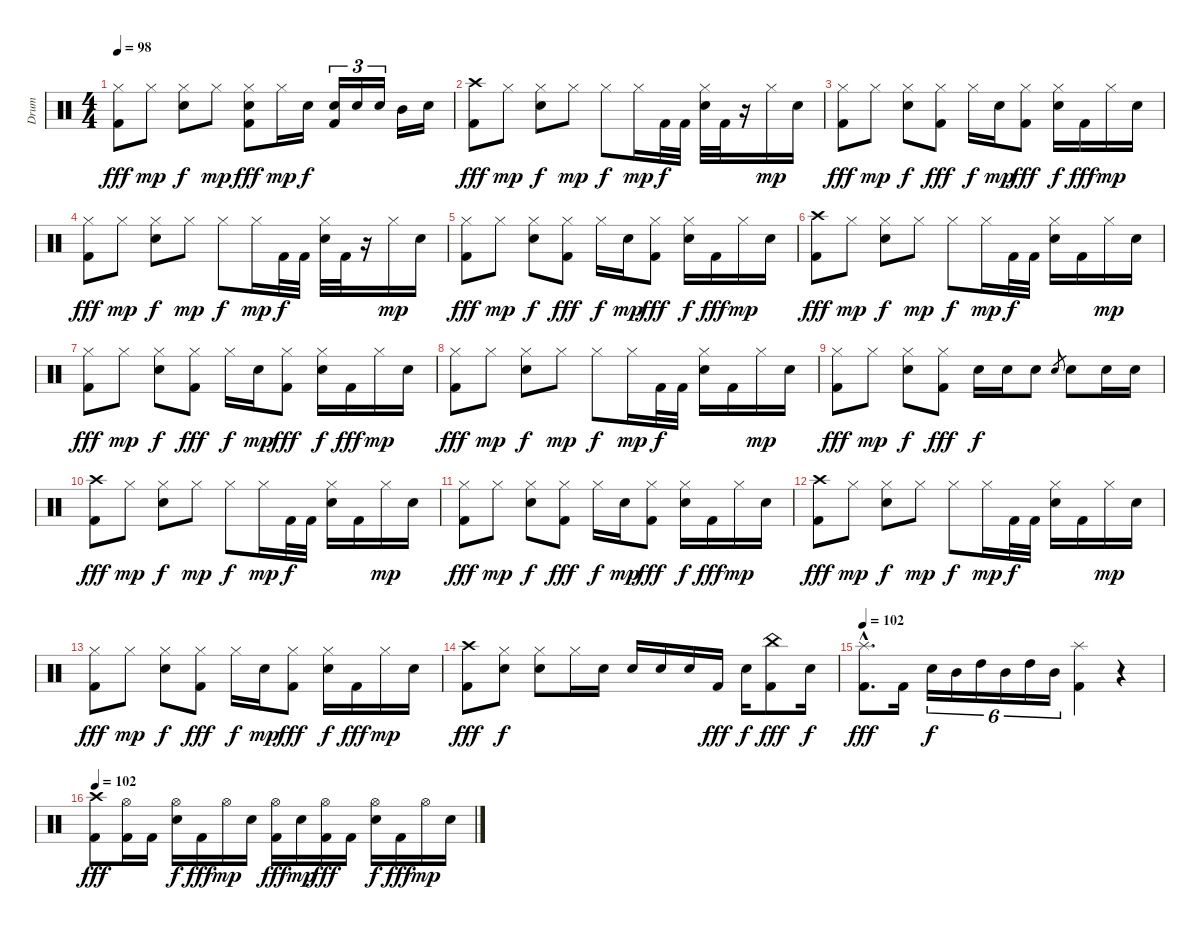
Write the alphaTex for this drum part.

\track ("Drum" "Drum") {instrument percussion}
\staff {score}
\articulation defaults
\ts (4 4)
\tempo 98
\clef neutral
\ks c
("Hi-Hat (closed)" "Kick (hit) 2").8{dy fff} "Hi-Hat (closed)".8{dy mp} ("Hi-Hat (closed)" "Electric Snare (hit)").8{dy f} "Hi-Hat (closed)".8{dy mp} ("Hi-Hat (closed)" "Electric Snare (hit)" "Kick (hit) 2").8{dy fff} "Hi-Hat (closed)".16{dy mp} "Electric Snare (hit)".16{dy f} ("Electric Snare (hit)" "Kick (hit) 2").16{tu (3 2)} "Electric Snare (hit)".16{tu (3 2)} "Electric Snare (hit)".16{tu (3 2)} "Mid Tom (hit)".16 "Electric Snare (hit)".16 |
("Crash high (hit)" "Kick (hit) 2").8{dy fff} "Hi-Hat (closed)".8{dy mp} ("Hi-Hat (closed)" "Electric Snare (hit)").8{dy f} "Hi-Hat (closed)".8{dy mp} "Hi-Hat (closed)".8{dy f} "Hi-Hat (closed)".16{dy mp} "Kick (hit) 2".32{dy f} "Kick (hit) 2".32 ("Hi-Hat (closed)" "Electric Snare (hit)").32 "Kick (hit) 2".32 r.16 "Hi-Hat (closed)".16{dy mp} "Electric Snare (hit)".16 |
("Hi-Hat (closed)" "Kick (hit) 2").8{dy fff} "Hi-Hat (closed)".8{dy mp} ("Hi-Hat (closed)" "Electric Snare (hit)").8{dy f} ("Hi-Hat (closed)" "Kick (hit) 2").8{dy fff} "Hi-Hat (closed)".16{dy f} "Electric Snare (hit)".16{dy mp} ("Hi-Hat (closed)" "Kick (hit) 2").8{dy fff} ("Hi-Hat (closed)" "Electric Snare (hit)").16{dy f} "Kick (hit) 2".16{dy fff} "Hi-Hat (closed)".16{dy mp} "Electric Snare (hit)".16 |
("Hi-Hat (closed)" "Kick (hit) 2").8{dy fff} "Hi-Hat (closed)".8{dy mp} ("Hi-Hat (closed)" "Electric Snare (hit)").8{dy f} "Hi-Hat (closed)".8{dy mp} "Hi-Hat (closed)".8{dy f} "Hi-Hat (closed)".16{dy mp} "Kick (hit) 2".32{dy f} "Kick (hit) 2".32 ("Hi-Hat (closed)" "Electric Snare (hit)").32 "Kick (hit) 2".32 r.16 "Hi-Hat (closed)".16{dy mp} "Electric Snare (hit)".16 |
("Hi-Hat (closed)" "Kick (hit) 2").8{dy fff} "Hi-Hat (closed)".8{dy mp} ("Hi-Hat (closed)" "Electric Snare (hit)").8{dy f} ("Hi-Hat (closed)" "Kick (hit) 2").8{dy fff} "Hi-Hat (closed)".16{dy f} "Electric Snare (hit)".16{dy mp} ("Hi-Hat (closed)" "Kick (hit) 2").8{dy fff} ("Hi-Hat (closed)" "Electric Snare (hit)").16{dy f} "Kick (hit) 2".16{dy fff} "Hi-Hat (closed)".16{dy mp} "Electric Snare (hit)".16 |
("Crash high (hit)" "Kick (hit) 2").8{dy fff} "Hi-Hat (closed)".8{dy mp} ("Hi-Hat (closed)" "Electric Snare (hit)").8{dy f} "Hi-Hat (closed)".8{dy mp} "Hi-Hat (closed)".8{dy f} "Hi-Hat (closed)".16{dy mp} "Kick (hit) 2".32{dy f} "Kick (hit) 2".32 ("Hi-Hat (closed)" "Electric Snare (hit)").16 "Kick (hit) 2".16 "Hi-Hat (closed)".16{dy mp} "Electric Snare (hit)".16 |
("Hi-Hat (closed)" "Kick (hit) 2").8{dy fff} "Hi-Hat (closed)".8{dy mp} ("Hi-Hat (closed)" "Electric Snare (hit)").8{dy f} ("Hi-Hat (closed)" "Kick (hit) 2").8{dy fff} "Hi-Hat (closed)".16{dy f} "Electric Snare (hit)".16{dy mp} ("Hi-Hat (closed)" "Kick (hit) 2").8{dy fff} ("Hi-Hat (closed)" "Electric Snare (hit)").16{dy f} "Kick (hit) 2".16{dy fff} "Hi-Hat (closed)".16{dy mp} "Electric Snare (hit)".16 |
("Hi-Hat (closed)" "Kick (hit) 2").8{dy fff} "Hi-Hat (closed)".8{dy mp} ("Hi-Hat (closed)" "Electric Snare (hit)").8{dy f} "Hi-Hat (closed)".8{dy mp} "Hi-Hat (closed)".8{dy f} "Hi-Hat (closed)".16{dy mp} "Kick (hit) 2".32{dy f} "Kick (hit) 2".32 ("Hi-Hat (closed)" "Electric Snare (hit)").16 "Kick (hit) 2".16 "Hi-Hat (closed)".16{dy mp} "Electric Snare (hit)".16 |
("Hi-Hat (closed)" "Kick (hit) 2").8{dy fff} "Hi-Hat (closed)".8{dy mp} ("Hi-Hat (closed)" "Electric Snare (hit)").8{dy f} ("Hi-Hat (closed)" "Kick (hit) 2").8{dy fff} "Electric Snare (hit)".16{dy f} "Electric Snare (hit)".16 "Electric Snare (hit)".8 "Electric Snare (hit)".8{gr} "Electric Snare (hit)".8 "Electric Snare (hit)".16 "Electric Snare (hit)".16 |
("Crash high (hit)" "Kick (hit) 2").8{dy fff} "Hi-Hat (closed)".8{dy mp} ("Hi-Hat (closed)" "Electric Snare (hit)").8{dy f} "Hi-Hat (closed)".8{dy mp} "Hi-Hat (closed)".8{dy f} "Hi-Hat (closed)".16{dy mp} "Kick (hit) 2".32{dy f} "Kick (hit) 2".32 ("Hi-Hat (closed)" "Electric Snare (hit)").16 "Kick (hit) 2".16 "Hi-Hat (closed)".16{dy mp} "Electric Snare (hit)".16 |
("Hi-Hat (closed)" "Kick (hit) 2").8{dy fff} "Hi-Hat (closed)".8{dy mp} ("Hi-Hat (closed)" "Electric Snare (hit)").8{dy f} ("Hi-Hat (closed)" "Kick (hit) 2").8{dy fff} "Hi-Hat (closed)".16{dy f} "Electric Snare (hit)".16{dy mp} ("Hi-Hat (closed)" "Kick (hit) 2").8{dy fff} ("Hi-Hat (closed)" "Electric Snare (hit)").16{dy f} "Kick (hit) 2".16{dy fff} "Hi-Hat (closed)".16{dy mp} "Electric Snare (hit)".16 |
("Crash high (hit)" "Kick (hit) 2").8{dy fff} "Hi-Hat (closed)".8{dy mp} ("Hi-Hat (closed)" "Electric Snare (hit)").8{dy f} "Hi-Hat (closed)".8{dy mp} "Hi-Hat (closed)".8{dy f} "Hi-Hat (closed)".16{dy mp} "Kick (hit) 2".32{dy f} "Kick (hit) 2".32 ("Hi-Hat (closed)" "Electric Snare (hit)").16 "Kick (hit) 2".16 "Hi-Hat (closed)".16{dy mp} "Electric Snare (hit)".16 |
("Hi-Hat (closed)" "Kick (hit) 2").8{dy fff} "Hi-Hat (closed)".8{dy mp} ("Hi-Hat (closed)" "Electric Snare (hit)").8{dy f} ("Hi-Hat (closed)" "Kick (hit) 2").8{dy fff} "Hi-Hat (closed)".16{dy f} "Electric Snare (hit)".16{dy mp} ("Hi-Hat (closed)" "Kick (hit) 2").8{dy fff} ("Hi-Hat (closed)" "Electric Snare (hit)").16{dy f} "Kick (hit) 2".16{dy fff} "Hi-Hat (closed)".16{dy mp} "Electric Snare (hit)".16 |
("Crash high (hit)" "Kick (hit) 2").8{dy fff} ("Hi-Hat (closed)" "Electric Snare (hit)").8{dy f} ("Hi-Hat (closed)" "Electric Snare (hit)").8 "Hi-Hat (closed)".16 "Electric Snare (hit)".16 "Electric Snare (hit)".16 "Electric Snare (hit)".16 "Electric Snare (hit)".16 "Kick (hit) 2".16{dy fff} "Electric Snare (hit)".16{dy f} ("China (hit)" "Kick (hit) 2").8{dy fff} "Electric Snare (hit)".16{dy f} |
\tempo 102
("Splash (hit)"{hac} "Kick (hit) 2"{hac}).8{d dy fff} "Kick (hit) 2".16 "Electric Snare (hit)".16{tu (6 4) dy f} "Mid Tom (hit)".16{tu (6 4)} "High Tom (hit)".16{tu (6 4)} "Mid Tom (hit)".16{tu (6 4)} "High Tom (hit)".16{tu (6 4)} "Mid Tom (hit)".16{tu (6 4)} ("Splash (hit)" "Kick (hit) 2").4 r.4 |
\tempo 114
\tempo 102
("Crash high (hit)" "Kick (hit) 2").8{dy fff} ("Hi-Hat (open)" "Kick (hit) 2").16 "Kick (hit) 2".16 ("Hi-Hat (open)" "Electric Snare (hit)").16{dy f} "Kick (hit) 2".16{dy fff} "Hi-Hat (open)".16{dy mp} "Electric Snare (hit)".16 ("Hi-Hat (open)" "Kick (hit) 2").16{dy fff} "Electric Snare (hit)".16{dy mp} ("Hi-Hat (open)" "Kick (hit) 2").16{dy fff} "Kick (hit) 2".16 ("Hi-Hat (open)" "Electric Snare (hit)").16{dy f} "Kick (hit) 2".16{dy fff} "Hi-Hat (open)".16{dy mp} "Electric Snare (hit)".16
